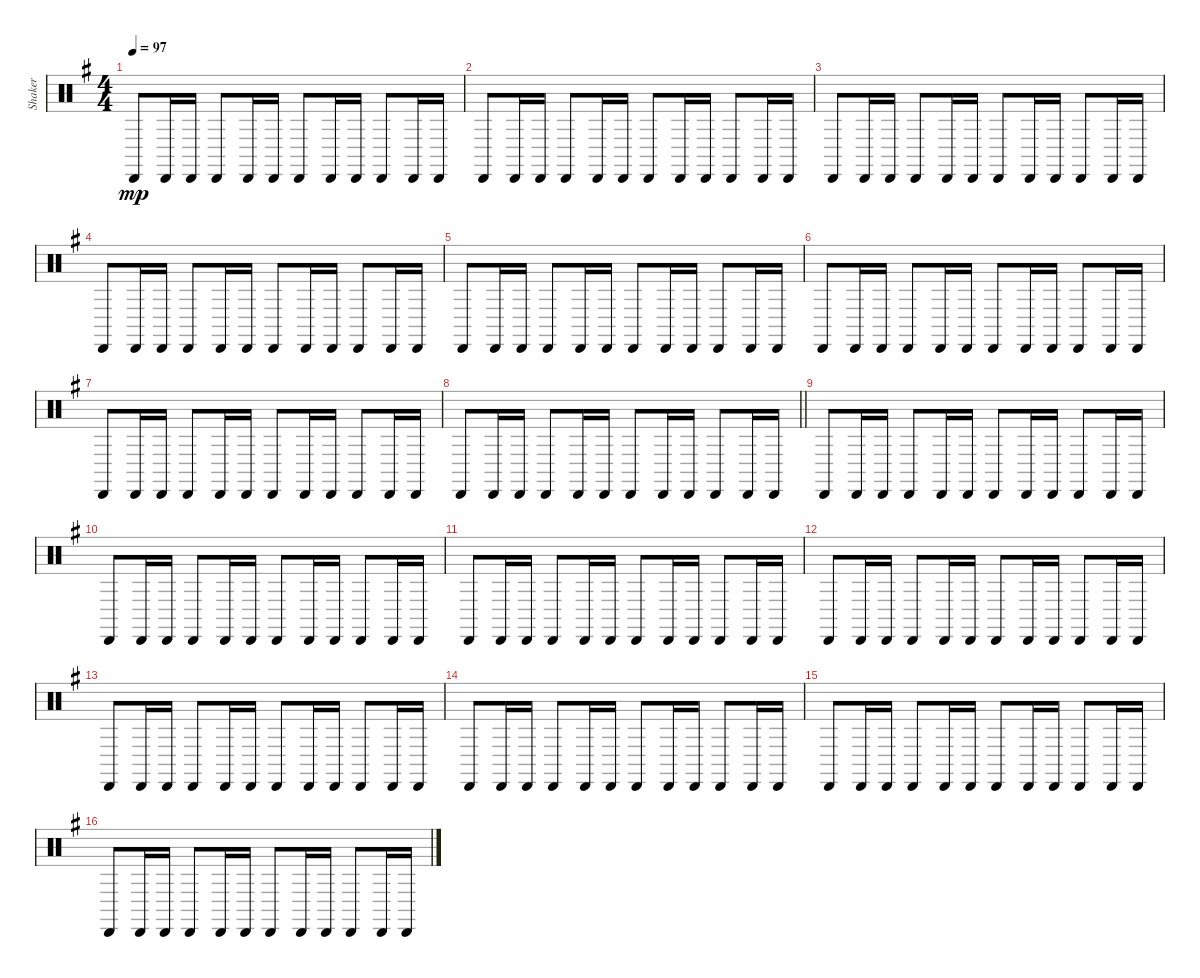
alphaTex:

\track ("Shaker" "Shaker") {instrument percussion}
\staff {score}
\articulation defaults
\ts (4 4)
\tempo 97
\clef neutral
\ks g "Cabasa (hit)".8{dy mp} "Cabasa (hit)".16 "Cabasa (hit)".16 "Cabasa (hit)".8 "Cabasa (hit)".16 "Cabasa (hit)".16 "Cabasa (hit)".8 "Cabasa (hit)".16 "Cabasa (hit)".16 "Cabasa (hit)".8 "Cabasa (hit)".16 "Cabasa (hit)".16
|
"Cabasa (hit)".8 "Cabasa (hit)".16 "Cabasa (hit)".16 "Cabasa (hit)".8 "Cabasa (hit)".16 "Cabasa (hit)".16 "Cabasa (hit)".8 "Cabasa (hit)".16 "Cabasa (hit)".16 "Cabasa (hit)".8 "Cabasa (hit)".16 "Cabasa (hit)".16 |
"Cabasa (hit)".8 "Cabasa (hit)".16 "Cabasa (hit)".16 "Cabasa (hit)".8 "Cabasa (hit)".16 "Cabasa (hit)".16 "Cabasa (hit)".8 "Cabasa (hit)".16 "Cabasa (hit)".16 "Cabasa (hit)".8 "Cabasa (hit)".16 "Cabasa (hit)".16 |
"Cabasa (hit)".8 "Cabasa (hit)".16 "Cabasa (hit)".16 "Cabasa (hit)".8 "Cabasa (hit)".16 "Cabasa (hit)".16 "Cabasa (hit)".8 "Cabasa (hit)".16 "Cabasa (hit)".16 "Cabasa (hit)".8 "Cabasa (hit)".16 "Cabasa (hit)".16 |
"Cabasa (hit)".8 "Cabasa (hit)".16 "Cabasa (hit)".16 "Cabasa (hit)".8 "Cabasa (hit)".16 "Cabasa (hit)".16 "Cabasa (hit)".8 "Cabasa (hit)".16 "Cabasa (hit)".16 "Cabasa (hit)".8 "Cabasa (hit)".16 "Cabasa (hit)".16 |
"Cabasa (hit)".8 "Cabasa (hit)".16 "Cabasa (hit)".16 "Cabasa (hit)".8 "Cabasa (hit)".16 "Cabasa (hit)".16 "Cabasa (hit)".8 "Cabasa (hit)".16 "Cabasa (hit)".16 "Cabasa (hit)".8 "Cabasa (hit)".16 "Cabasa (hit)".16 |
"Cabasa (hit)".8 "Cabasa (hit)".16 "Cabasa (hit)".16 "Cabasa (hit)".8 "Cabasa (hit)".16 "Cabasa (hit)".16 "Cabasa (hit)".8 "Cabasa (hit)".16 "Cabasa (hit)".16 "Cabasa (hit)".8 "Cabasa (hit)".16 "Cabasa (hit)".16 |
\barLineRight lightlight "Cabasa (hit)".8 "Cabasa (hit)".16 "Cabasa (hit)".16 "Cabasa (hit)".8 "Cabasa (hit)".16 "Cabasa (hit)".16 "Cabasa (hit)".8 "Cabasa (hit)".16 "Cabasa (hit)".16 "Cabasa (hit)".8 "Cabasa (hit)".16 "Cabasa (hit)".16
|
"Cabasa (hit)".8 "Cabasa (hit)".16 "Cabasa (hit)".16 "Cabasa (hit)".8 "Cabasa (hit)".16 "Cabasa (hit)".16 "Cabasa (hit)".8 "Cabasa (hit)".16 "Cabasa (hit)".16 "Cabasa (hit)".8 "Cabasa (hit)".16 "Cabasa (hit)".16 |
"Cabasa (hit)".8 "Cabasa (hit)".16 "Cabasa (hit)".16 "Cabasa (hit)".8 "Cabasa (hit)".16 "Cabasa (hit)".16 "Cabasa (hit)".8 "Cabasa (hit)".16 "Cabasa (hit)".16 "Cabasa (hit)".8 "Cabasa (hit)".16 "Cabasa (hit)".16 |
"Cabasa (hit)".8 "Cabasa (hit)".16 "Cabasa (hit)".16 "Cabasa (hit)".8 "Cabasa (hit)".16 "Cabasa (hit)".16 "Cabasa (hit)".8 "Cabasa (hit)".16 "Cabasa (hit)".16 "Cabasa (hit)".8 "Cabasa (hit)".16 "Cabasa (hit)".16 |
"Cabasa (hit)".8 "Cabasa (hit)".16 "Cabasa (hit)".16 "Cabasa (hit)".8 "Cabasa (hit)".16 "Cabasa (hit)".16 "Cabasa (hit)".8 "Cabasa (hit)".16 "Cabasa (hit)".16 "Cabasa (hit)".8 "Cabasa (hit)".16 "Cabasa (hit)".16 |
"Cabasa (hit)".8 "Cabasa (hit)".16 "Cabasa (hit)".16 "Cabasa (hit)".8 "Cabasa (hit)".16 "Cabasa (hit)".16 "Cabasa (hit)".8 "Cabasa (hit)".16 "Cabasa (hit)".16 "Cabasa (hit)".8 "Cabasa (hit)".16 "Cabasa (hit)".16 |
"Cabasa (hit)".8 "Cabasa (hit)".16 "Cabasa (hit)".16 "Cabasa (hit)".8 "Cabasa (hit)".16 "Cabasa (hit)".16 "Cabasa (hit)".8 "Cabasa (hit)".16 "Cabasa (hit)".16 "Cabasa (hit)".8 "Cabasa (hit)".16 "Cabasa (hit)".16 |
"Cabasa (hit)".8 "Cabasa (hit)".16 "Cabasa (hit)".16 "Cabasa (hit)".8 "Cabasa (hit)".16 "Cabasa (hit)".16 "Cabasa (hit)".8 "Cabasa (hit)".16 "Cabasa (hit)".16 "Cabasa (hit)".8 "Cabasa (hit)".16 "Cabasa (hit)".16 |
"Cabasa (hit)".8 "Cabasa (hit)".16 "Cabasa (hit)".16 "Cabasa (hit)".8 "Cabasa (hit)".16 "Cabasa (hit)".16 "Cabasa (hit)".8 "Cabasa (hit)".16 "Cabasa (hit)".16 "Cabasa (hit)".8 "Cabasa (hit)".16 "Cabasa (hit)".16
